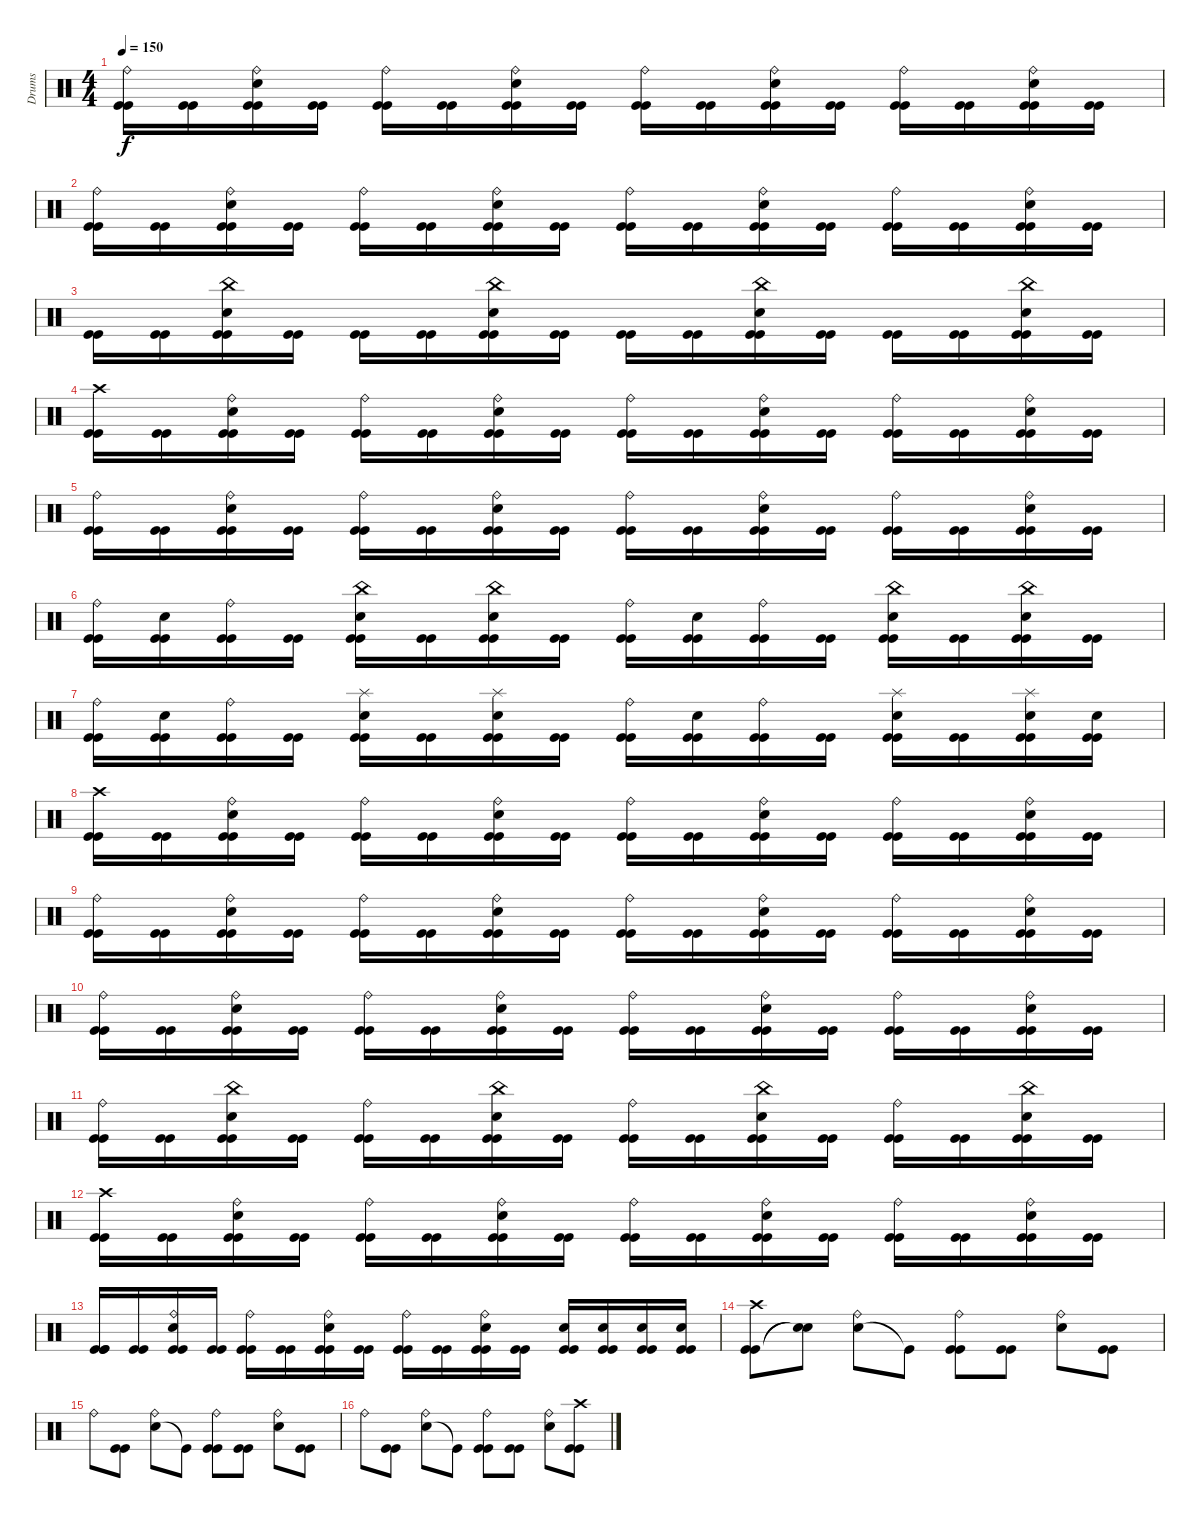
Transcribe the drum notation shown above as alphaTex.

\track ("Drums" "Drums") {instrument percussion}
\staff {score}
\articulation defaults
\ts (4 4)
\tempo 150
\clef neutral
\ks c
("Kick (hit)" "Kick (hit)" "Ride (bell)").16{dy f} ("Kick (hit)" "Kick (hit)").16 ("Kick (hit)" "Kick (hit)" "Snare (hit) 2" "Ride (bell)").16 ("Kick (hit)" "Kick (hit)").16 ("Kick (hit)" "Kick (hit)" "Ride (bell)").16 ("Kick (hit)" "Kick (hit)").16 ("Kick (hit)" "Kick (hit)" "Snare (hit) 2" "Ride (bell)").16 ("Kick (hit)" "Kick (hit)").16 ("Kick (hit)" "Kick (hit)" "Ride (bell)").16 ("Kick (hit)" "Kick (hit)").16 ("Kick (hit)" "Kick (hit)" "Snare (hit) 2" "Ride (bell)").16 ("Kick (hit)" "Kick (hit)").16 ("Kick (hit)" "Kick (hit)" "Ride (bell)").16 ("Kick (hit)" "Kick (hit)").16 ("Kick (hit)" "Kick (hit)" "Snare (hit) 2" "Ride (bell)").16 ("Kick (hit)" "Kick (hit)").16 |
("Kick (hit)" "Kick (hit)" "Ride (bell)").16 ("Kick (hit)" "Kick (hit)").16 ("Kick (hit)" "Kick (hit)" "Snare (hit) 2" "Ride (bell)").16 ("Kick (hit)" "Kick (hit)").16 ("Kick (hit)" "Kick (hit)" "Ride (bell)").16 ("Kick (hit)" "Kick (hit)").16 ("Kick (hit)" "Kick (hit)" "Snare (hit) 2" "Ride (bell)").16 ("Kick (hit)" "Kick (hit)").16 ("Kick (hit)" "Kick (hit)" "Ride (bell)").16 ("Kick (hit)" "Kick (hit)").16 ("Kick (hit)" "Kick (hit)" "Snare (hit) 2" "Ride (bell)").16 ("Kick (hit)" "Kick (hit)").16 ("Kick (hit)" "Kick (hit)" "Ride (bell)").16 ("Kick (hit)" "Kick (hit)").16 ("Kick (hit)" "Kick (hit)" "Snare (hit) 2" "Ride (bell)").16 ("Kick (hit)" "Kick (hit)").16 |
("Kick (hit)" "Kick (hit)").16 ("Kick (hit)" "Kick (hit)").16 ("Kick (hit)" "Kick (hit)" "Snare (hit) 2" "China (hit)").16 ("Kick (hit)" "Kick (hit)").16 ("Kick (hit)" "Kick (hit)").16 ("Kick (hit)" "Kick (hit)").16 ("Kick (hit)" "Kick (hit)" "Snare (hit) 2" "China (hit)").16 ("Kick (hit)" "Kick (hit)").16 ("Kick (hit)" "Kick (hit)").16 ("Kick (hit)" "Kick (hit)").16 ("Kick (hit)" "Kick (hit)" "Snare (hit) 2" "China (hit)").16 ("Kick (hit)" "Kick (hit)").16 ("Kick (hit)" "Kick (hit)").16 ("Kick (hit)" "Kick (hit)").16 ("Kick (hit)" "Kick (hit)" "Snare (hit) 2" "China (hit)").16 ("Kick (hit)" "Kick (hit)").16 |
("Kick (hit)" "Kick (hit)" "Crash high (hit)").16 ("Kick (hit)" "Kick (hit)").16 ("Kick (hit)" "Kick (hit)" "Snare (hit) 2" "Ride (bell)").16 ("Kick (hit)" "Kick (hit)").16 ("Kick (hit)" "Kick (hit)" "Ride (bell)").16 ("Kick (hit)" "Kick (hit)").16 ("Kick (hit)" "Kick (hit)" "Snare (hit) 2" "Ride (bell)").16 ("Kick (hit)" "Kick (hit)").16 ("Kick (hit)" "Kick (hit)" "Ride (bell)").16 ("Kick (hit)" "Kick (hit)").16 ("Kick (hit)" "Kick (hit)" "Snare (hit) 2" "Ride (bell)").16 ("Kick (hit)" "Kick (hit)").16 ("Kick (hit)" "Kick (hit)" "Ride (bell)").16 ("Kick (hit)" "Kick (hit)").16 ("Kick (hit)" "Kick (hit)" "Snare (hit) 2" "Ride (bell)").16 ("Kick (hit)" "Kick (hit)").16 |
("Kick (hit)" "Kick (hit)" "Ride (bell)").16 ("Kick (hit)" "Kick (hit)").16 ("Kick (hit)" "Kick (hit)" "Snare (hit) 2" "Ride (bell)").16 ("Kick (hit)" "Kick (hit)").16 ("Kick (hit)" "Kick (hit)" "Ride (bell)").16 ("Kick (hit)" "Kick (hit)").16 ("Kick (hit)" "Kick (hit)" "Snare (hit) 2" "Ride (bell)").16 ("Kick (hit)" "Kick (hit)").16 ("Kick (hit)" "Kick (hit)" "Ride (bell)").16 ("Kick (hit)" "Kick (hit)").16 ("Kick (hit)" "Kick (hit)" "Snare (hit) 2" "Ride (bell)").16 ("Kick (hit)" "Kick (hit)").16 ("Kick (hit)" "Kick (hit)" "Ride (bell)").16 ("Kick (hit)" "Kick (hit)").16 ("Kick (hit)" "Kick (hit)" "Snare (hit) 2" "Ride (bell)").16 ("Kick (hit)" "Kick (hit)").16 |
("Kick (hit)" "Kick (hit)" "Ride (bell)").16 ("Kick (hit)" "Kick (hit)" "Snare (hit) 2").16 ("Kick (hit)" "Kick (hit)" "Ride (bell)").16 ("Kick (hit)" "Kick (hit)").16 ("Kick (hit)" "Kick (hit)" "Snare (hit) 2" "China (hit)").16 ("Kick (hit)" "Kick (hit)").16 ("Kick (hit)" "Kick (hit)" "Snare (hit) 2" "China (hit)").16 ("Kick (hit)" "Kick (hit)").16 ("Kick (hit)" "Kick (hit)" "Ride (bell)").16 ("Kick (hit)" "Kick (hit)" "Snare (hit) 2").16 ("Kick (hit)" "Kick (hit)" "Ride (bell)").16 ("Kick (hit)" "Kick (hit)").16 ("Kick (hit)" "Kick (hit)" "Snare (hit) 2" "China (hit)").16 ("Kick (hit)" "Kick (hit)").16 ("Kick (hit)" "Kick (hit)" "Snare (hit) 2" "China (hit)").16 ("Kick (hit)" "Kick (hit)").16 |
("Kick (hit)" "Kick (hit)" "Ride (bell)").16 ("Kick (hit)" "Kick (hit)" "Snare (hit) 2").16 ("Kick (hit)" "Kick (hit)" "Ride (bell)").16 ("Kick (hit)" "Kick (hit)").16 ("Kick (hit)" "Kick (hit)" "Snare (hit) 2" "Splash (hit)").16 ("Kick (hit)" "Kick (hit)").16 ("Kick (hit)" "Kick (hit)" "Snare (hit) 2" "Splash (hit)").16 ("Kick (hit)" "Kick (hit)").16 ("Kick (hit)" "Kick (hit)" "Ride (bell)").16 ("Kick (hit)" "Kick (hit)" "Snare (hit) 2").16 ("Kick (hit)" "Kick (hit)" "Ride (bell)").16 ("Kick (hit)" "Kick (hit)").16 ("Kick (hit)" "Kick (hit)" "Snare (hit) 2" "Splash (hit)").16 ("Kick (hit)" "Kick (hit)").16 ("Kick (hit)" "Kick (hit)" "Snare (hit) 2" "Splash (hit)").16 ("Kick (hit)" "Kick (hit)" "Snare (hit) 2").16 |
("Kick (hit)" "Kick (hit)" "Crash high (hit)").16 ("Kick (hit)" "Kick (hit)").16 ("Kick (hit)" "Kick (hit)" "Snare (hit) 2" "Ride (bell)").16 ("Kick (hit)" "Kick (hit)").16 ("Kick (hit)" "Kick (hit)" "Ride (bell)").16 ("Kick (hit)" "Kick (hit)").16 ("Kick (hit)" "Kick (hit)" "Snare (hit) 2" "Ride (bell)").16 ("Kick (hit)" "Kick (hit)").16 ("Kick (hit)" "Kick (hit)" "Ride (bell)").16 ("Kick (hit)" "Kick (hit)").16 ("Kick (hit)" "Kick (hit)" "Snare (hit) 2" "Ride (bell)").16 ("Kick (hit)" "Kick (hit)").16 ("Kick (hit)" "Kick (hit)" "Ride (bell)").16 ("Kick (hit)" "Kick (hit)").16 ("Kick (hit)" "Kick (hit)" "Snare (hit) 2" "Ride (bell)").16 ("Kick (hit)" "Kick (hit)").16 |
("Kick (hit)" "Kick (hit)" "Ride (bell)").16 ("Kick (hit)" "Kick (hit)").16 ("Kick (hit)" "Kick (hit)" "Snare (hit) 2" "Ride (bell)").16 ("Kick (hit)" "Kick (hit)").16 ("Kick (hit)" "Kick (hit)" "Ride (bell)").16 ("Kick (hit)" "Kick (hit)").16 ("Kick (hit)" "Kick (hit)" "Snare (hit) 2" "Ride (bell)").16 ("Kick (hit)" "Kick (hit)").16 ("Kick (hit)" "Kick (hit)" "Ride (bell)").16 ("Kick (hit)" "Kick (hit)").16 ("Kick (hit)" "Kick (hit)" "Snare (hit) 2" "Ride (bell)").16 ("Kick (hit)" "Kick (hit)").16 ("Kick (hit)" "Kick (hit)" "Ride (bell)").16 ("Kick (hit)" "Kick (hit)").16 ("Kick (hit)" "Kick (hit)" "Snare (hit) 2" "Ride (bell)").16 ("Kick (hit)" "Kick (hit)").16 |
("Kick (hit)" "Kick (hit)" "Ride (bell)").16 ("Kick (hit)" "Kick (hit)").16 ("Kick (hit)" "Kick (hit)" "Snare (hit) 2" "Ride (bell)").16 ("Kick (hit)" "Kick (hit)").16 ("Kick (hit)" "Kick (hit)" "Ride (bell)").16 ("Kick (hit)" "Kick (hit)").16 ("Kick (hit)" "Kick (hit)" "Snare (hit) 2" "Ride (bell)").16 ("Kick (hit)" "Kick (hit)").16 ("Kick (hit)" "Kick (hit)" "Ride (bell)").16 ("Kick (hit)" "Kick (hit)").16 ("Kick (hit)" "Kick (hit)" "Snare (hit) 2" "Ride (bell)").16 ("Kick (hit)" "Kick (hit)").16 ("Kick (hit)" "Kick (hit)" "Ride (bell)").16 ("Kick (hit)" "Kick (hit)").16 ("Kick (hit)" "Kick (hit)" "Snare (hit) 2" "Ride (bell)").16 ("Kick (hit)" "Kick (hit)").16 |
("Kick (hit)" "Kick (hit)" "Ride (bell)").16 ("Kick (hit)" "Kick (hit)").16 ("Kick (hit)" "Kick (hit)" "Snare (hit) 2" "China (hit)").16 ("Kick (hit)" "Kick (hit)").16 ("Kick (hit)" "Kick (hit)" "Ride (bell)").16 ("Kick (hit)" "Kick (hit)").16 ("Kick (hit)" "Kick (hit)" "Snare (hit) 2" "China (hit)").16 ("Kick (hit)" "Kick (hit)").16 ("Kick (hit)" "Kick (hit)" "Ride (bell)").16 ("Kick (hit)" "Kick (hit)").16 ("Kick (hit)" "Kick (hit)" "Snare (hit) 2" "China (hit)").16 ("Kick (hit)" "Kick (hit)").16 ("Kick (hit)" "Kick (hit)" "Ride (bell)").16 ("Kick (hit)" "Kick (hit)").16 ("Kick (hit)" "Kick (hit)" "Snare (hit) 2" "China (hit)").16 ("Kick (hit)" "Kick (hit)").16 |
("Kick (hit)" "Kick (hit)" "Crash high (hit)").16 ("Kick (hit)" "Kick (hit)").16 ("Kick (hit)" "Kick (hit)" "Snare (hit) 2" "Ride (bell)").16 ("Kick (hit)" "Kick (hit)").16 ("Kick (hit)" "Kick (hit)" "Ride (bell)").16 ("Kick (hit)" "Kick (hit)").16 ("Kick (hit)" "Kick (hit)" "Snare (hit) 2" "Ride (bell)").16 ("Kick (hit)" "Kick (hit)").16 ("Kick (hit)" "Kick (hit)" "Ride (bell)").16 ("Kick (hit)" "Kick (hit)").16 ("Kick (hit)" "Kick (hit)" "Snare (hit) 2" "Ride (bell)").16 ("Kick (hit)" "Kick (hit)").16 ("Kick (hit)" "Kick (hit)" "Ride (bell)").16 ("Kick (hit)" "Kick (hit)").16 ("Kick (hit)" "Kick (hit)" "Snare (hit) 2" "Ride (bell)").16 ("Kick (hit)" "Kick (hit)").16 |
("Kick (hit)" "Kick (hit)" "Kick (hit)").16 ("Kick (hit)" "Kick (hit)").16 ("Kick (hit)" "Kick (hit)" "Snare (hit) 2" "Ride (bell)").16 ("Kick (hit)" "Kick (hit)").16 ("Kick (hit)" "Kick (hit)" "Ride (bell)").16 ("Kick (hit)" "Kick (hit)").16 ("Kick (hit)" "Kick (hit)" "Snare (hit) 2" "Ride (bell)").16 ("Kick (hit)" "Kick (hit)").16 ("Kick (hit)" "Kick (hit)" "Ride (bell)").16 ("Kick (hit)" "Kick (hit)").16 ("Kick (hit)" "Kick (hit)" "Snare (hit) 2" "Ride (bell)").16 ("Kick (hit)" "Kick (hit)").16 ("Kick (hit)" "Kick (hit)" "Snare (hit) 2").16 ("Kick (hit)" "Kick (hit)" "Snare (hit) 2").16 ("Kick (hit)" "Kick (hit)" "Snare (hit) 2").16 ("Kick (hit)" "Kick (hit)" "Snare (hit) 2").16 |
("Kick (hit)" "Kick (hit)" "Crash high (hit)").8 ("Snare (hit)"{t} "Snare (hit)"{t}).8 ("Snare (hit) 2" "Ride (bell)").8 "Kick (hit)"{t}.8 ("Kick (hit)" "Kick (hit)" "Ride (bell)").8 ("Kick (hit)" "Kick (hit)").8 ("Snare (hit) 2" "Ride (bell)").8 ("Kick (hit)" "Kick (hit)").8 |
"Ride (bell)".8 ("Kick (hit)" "Kick (hit)").8 ("Snare (hit) 2" "Ride (bell)").8 "Kick (hit)"{t}.8 ("Kick (hit)" "Kick (hit)" "Ride (bell)").8 ("Kick (hit)" "Kick (hit)").8 ("Snare (hit) 2" "Ride (bell)").8 ("Kick (hit)" "Kick (hit)").8 |
"Ride (bell)".8 ("Kick (hit)" "Kick (hit)").8 ("Snare (hit) 2" "Ride (bell)").8 "Kick (hit)"{t}.8 ("Kick (hit)" "Kick (hit)" "Ride (bell)").8 ("Kick (hit)" "Kick (hit)").8 ("Snare (hit) 2" "Ride (bell)").8 ("Kick (hit)" "Kick (hit)" "Crash high (hit)").8
